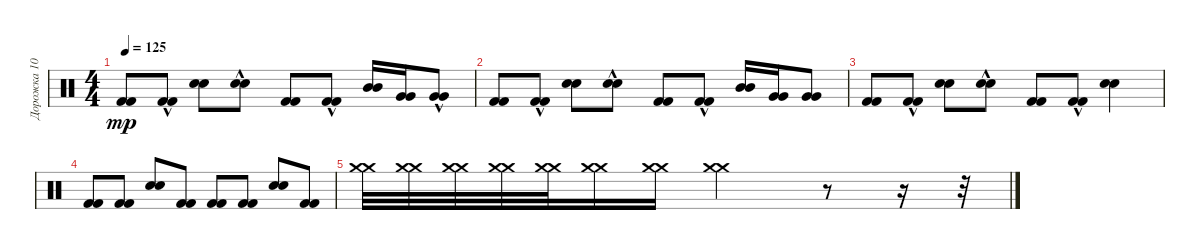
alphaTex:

\track ("Дорожка 10" "Дорожка 10") {instrument percussion}
\staff {score}
\articulation defaults
\ts (4 4)
\tempo 125
\clef neutral
\ks c
("Kick (hit) 2" "Kick (hit) 2").8{dy mp} ("Kick (hit) 2"{hac} "Kick (hit) 2"{hac}).8 ("Snare (hit) 2" "Snare (hit) 2").8 ("Snare (hit) 2"{hac} "Snare (hit) 2"{hac}).8 ("Kick (hit) 2" "Kick (hit) 2").8 ("Kick (hit) 2"{hac} "Kick (hit) 2"{hac}).8 ("Mid Tom (hit)" "Mid Tom (hit)").16 ("Very Low Tom (hit)" "Very Low Tom (hit)").16 ("Very Low Tom (hit)"{hac} "Very Low Tom (hit)"{hac}).8 |
("Kick (hit) 2" "Kick (hit) 2").8 ("Kick (hit) 2"{hac} "Kick (hit) 2"{hac}).8 ("Snare (hit) 2" "Snare (hit) 2").8 ("Snare (hit) 2"{hac} "Snare (hit) 2"{hac}).8 ("Kick (hit) 2" "Kick (hit) 2").8 ("Kick (hit) 2"{hac} "Kick (hit) 2"{hac}).8 ("Mid Tom (hit)" "Mid Tom (hit)").16 ("Very Low Tom (hit)" "Very Low Tom (hit)").16 ("Very Low Tom (hit)" "Very Low Tom (hit)").8 |
("Kick (hit) 2" "Kick (hit) 2").8 ("Kick (hit) 2"{hac} "Kick (hit) 2"{hac}).8 ("Snare (hit) 2" "Snare (hit) 2").8 ("Snare (hit) 2"{hac} "Snare (hit) 2"{hac}).8 ("Kick (hit) 2" "Kick (hit) 2").8 ("Kick (hit) 2"{hac} "Kick (hit) 2"{hac}).8 ("Snare (hit) 2" "Snare (hit) 2").4 |
("Kick (hit) 2" "Kick (hit) 2").8 ("Kick (hit) 2" "Kick (hit) 2").8 ("Snare (hit) 2" "Snare (hit) 2").8 ("Kick (hit) 2" "Kick (hit) 2").8 ("Kick (hit) 2" "Kick (hit) 2").8 ("Kick (hit) 2" "Kick (hit) 2").8 ("Snare (hit) 2" "Snare (hit) 2").8 ("Kick (hit) 2" "Kick (hit) 2").8 |
("Crash medium (hit)" "Crash medium (hit)").32 ("Crash medium (hit)" "Crash medium (hit)").32 ("Crash medium (hit)" "Crash medium (hit)").32 ("Crash medium (hit)" "Crash medium (hit)").32 ("Crash medium (hit)" "Crash medium (hit)").32 ("Crash medium (hit)" "Crash medium (hit)").16 ("Crash medium (hit)" "Crash medium (hit)").16 ("Crash medium (hit)" "Crash medium (hit)").2 r.8 r.16 r.32
